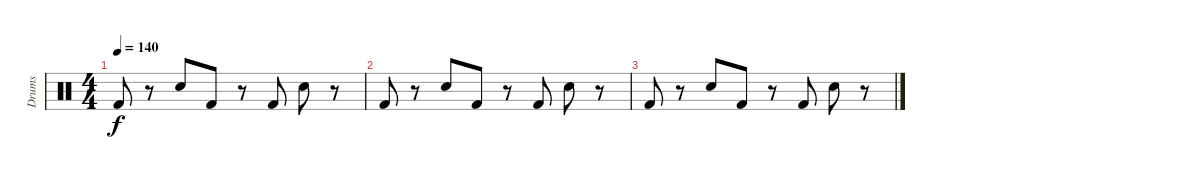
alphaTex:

\track ("Drums" "Drums") {instrument percussion}
\staff {score}
\articulation defaults
\ts (4 4)
\tempo 140
\clef neutral
\ks c "Kick (hit) 2".8{dy f}
r.8 "Snare (hit) 2".8 "Kick (hit) 2".8 r.8 "Kick (hit) 2".8 "Snare (hit) 2".8 r.8 |
"Kick (hit) 2".8 r.8 "Snare (hit) 2".8 "Kick (hit) 2".8 r.8 "Kick (hit) 2".8 "Snare (hit) 2".8 r.8 |
"Kick (hit) 2".8 r.8 "Snare (hit) 2".8 "Kick (hit) 2".8 r.8 "Kick (hit) 2".8 "Snare (hit) 2".8 r.8
